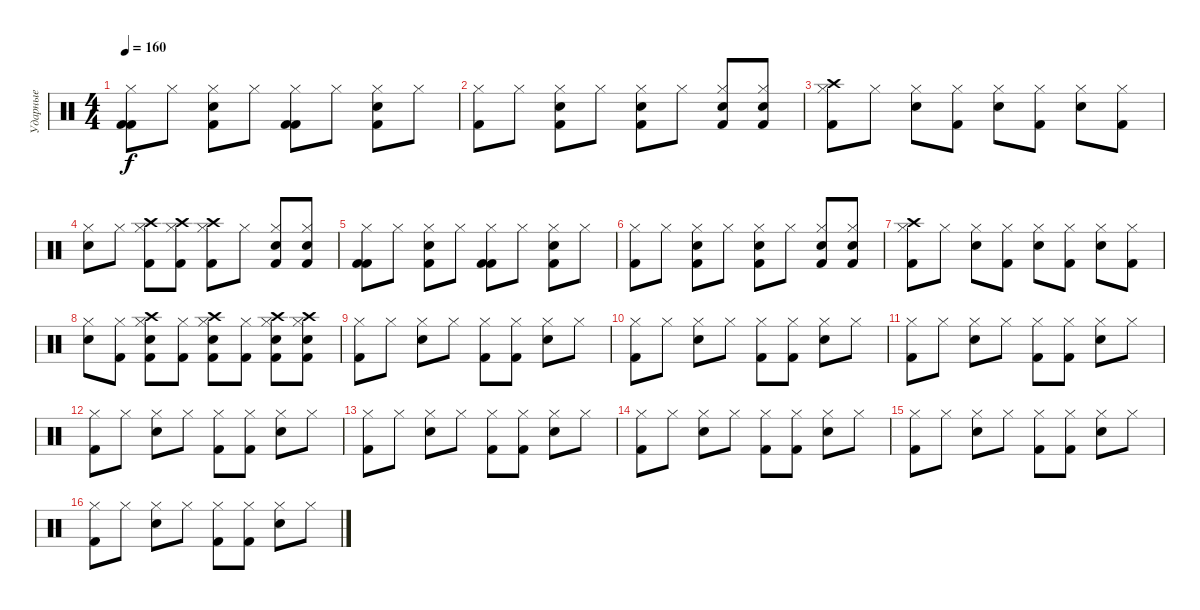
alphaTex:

\track ("Ударные" "Ударные") {instrument percussion}
\staff {score}
\articulation defaults
\ts (4 4)
\tempo 160
\clef neutral
\ks c
("Kick (hit) 2" "Kick (hit) 2" "Hi-Hat (closed)").8{dy f} "Hi-Hat (closed)".8 ("Kick (hit) 2" "Electric Snare (hit)" "Hi-Hat (closed)").8 "Hi-Hat (closed)".8 ("Kick (hit) 2" "Kick (hit) 2" "Hi-Hat (closed)").8 "Hi-Hat (closed)".8 ("Kick (hit) 2" "Electric Snare (hit)" "Hi-Hat (closed)").8 "Hi-Hat (closed)".8 |
("Kick (hit) 2" "Hi-Hat (closed)").8 "Hi-Hat (closed)".8 ("Kick (hit) 2" "Electric Snare (hit)" "Hi-Hat (closed)").8 "Hi-Hat (closed)".8 ("Kick (hit) 2" "Electric Snare (hit)" "Hi-Hat (closed)").8 "Hi-Hat (closed)".8 ("Kick (hit) 2" "Electric Snare (hit)" "Hi-Hat (closed)").8 ("Kick (hit) 2" "Electric Snare (hit)" "Hi-Hat (closed)").8 |
("Crash high (hit)" "Kick (hit) 2" "Hi-Hat (closed)").8 "Hi-Hat (closed)".8 ("Electric Snare (hit)" "Hi-Hat (closed)").8 ("Kick (hit) 2" "Hi-Hat (closed)").8 ("Electric Snare (hit)" "Hi-Hat (closed)").8 ("Kick (hit) 2" "Hi-Hat (closed)").8 ("Electric Snare (hit)" "Hi-Hat (closed)").8 ("Kick (hit) 2" "Hi-Hat (closed)").8 |
("Electric Snare (hit)" "Hi-Hat (closed)").8 "Hi-Hat (closed)".8 ("Crash high (hit)" "Kick (hit) 2" "Hi-Hat (closed)").8 ("Crash high (hit)" "Kick (hit) 2" "Hi-Hat (closed)").8 ("Crash high (hit)" "Kick (hit) 2" "Hi-Hat (closed)").8 "Hi-Hat (closed)".8 ("Kick (hit) 2" "Electric Snare (hit)" "Hi-Hat (closed)").8 ("Kick (hit) 2" "Electric Snare (hit)" "Hi-Hat (closed)").8 |
("Kick (hit) 2" "Kick (hit) 2" "Hi-Hat (closed)").8 "Hi-Hat (closed)".8 ("Kick (hit) 2" "Electric Snare (hit)" "Hi-Hat (closed)").8 "Hi-Hat (closed)".8 ("Kick (hit) 2" "Kick (hit) 2" "Hi-Hat (closed)").8 "Hi-Hat (closed)".8 ("Kick (hit) 2" "Electric Snare (hit)" "Hi-Hat (closed)").8 "Hi-Hat (closed)".8 |
("Kick (hit) 2" "Hi-Hat (closed)").8 "Hi-Hat (closed)".8 ("Kick (hit) 2" "Electric Snare (hit)" "Hi-Hat (closed)").8 "Hi-Hat (closed)".8 ("Kick (hit) 2" "Electric Snare (hit)" "Hi-Hat (closed)").8 "Hi-Hat (closed)".8 ("Kick (hit) 2" "Electric Snare (hit)" "Hi-Hat (closed)").8 ("Kick (hit) 2" "Electric Snare (hit)" "Hi-Hat (closed)").8 |
("Crash high (hit)" "Kick (hit) 2" "Hi-Hat (closed)").8 "Hi-Hat (closed)".8 ("Electric Snare (hit)" "Hi-Hat (closed)").8 ("Kick (hit) 2" "Hi-Hat (closed)").8 ("Electric Snare (hit)" "Hi-Hat (closed)").8 ("Kick (hit) 2" "Hi-Hat (closed)").8 ("Electric Snare (hit)" "Hi-Hat (closed)").8 ("Kick (hit) 2" "Hi-Hat (closed)").8 |
("Electric Snare (hit)" "Hi-Hat (closed)").8 ("Kick (hit) 2" "Hi-Hat (closed)").8 ("Electric Snare (hit)" "Crash high (hit)" "Kick (hit) 2" "Hi-Hat (closed)").8 ("Kick (hit) 2" "Hi-Hat (closed)").8 ("Electric Snare (hit)" "Crash high (hit)" "Kick (hit) 2" "Hi-Hat (closed)").8 ("Kick (hit) 2" "Hi-Hat (closed)").8 ("Electric Snare (hit)" "Crash high (hit)" "Kick (hit) 2" "Hi-Hat (closed)").8 ("Electric Snare (hit)" "Crash high (hit)" "Kick (hit) 2" "Hi-Hat (closed)").8 |
("Kick (hit) 2" "Hi-Hat (closed)").8 "Hi-Hat (closed)".8 ("Electric Snare (hit)" "Hi-Hat (closed)").8 "Hi-Hat (closed)".8 ("Kick (hit) 2" "Hi-Hat (closed)").8 ("Kick (hit) 2" "Hi-Hat (closed)").8 ("Electric Snare (hit)" "Hi-Hat (closed)").8 "Hi-Hat (closed)".8 |
("Kick (hit) 2" "Hi-Hat (closed)").8 "Hi-Hat (closed)".8 ("Electric Snare (hit)" "Hi-Hat (closed)").8 "Hi-Hat (closed)".8 ("Kick (hit) 2" "Hi-Hat (closed)").8 ("Kick (hit) 2" "Hi-Hat (closed)").8 ("Electric Snare (hit)" "Hi-Hat (closed)").8 "Hi-Hat (closed)".8 |
("Kick (hit) 2" "Hi-Hat (closed)").8 "Hi-Hat (closed)".8 ("Electric Snare (hit)" "Hi-Hat (closed)").8 "Hi-Hat (closed)".8 ("Kick (hit) 2" "Hi-Hat (closed)").8 ("Kick (hit) 2" "Hi-Hat (closed)").8 ("Electric Snare (hit)" "Hi-Hat (closed)").8 "Hi-Hat (closed)".8 |
("Kick (hit) 2" "Hi-Hat (closed)").8 "Hi-Hat (closed)".8 ("Electric Snare (hit)" "Hi-Hat (closed)").8 "Hi-Hat (closed)".8 ("Kick (hit) 2" "Hi-Hat (closed)").8 ("Kick (hit) 2" "Hi-Hat (closed)").8 ("Electric Snare (hit)" "Hi-Hat (closed)").8 "Hi-Hat (closed)".8 |
("Kick (hit) 2" "Hi-Hat (closed)").8 "Hi-Hat (closed)".8 ("Electric Snare (hit)" "Hi-Hat (closed)").8 "Hi-Hat (closed)".8 ("Kick (hit) 2" "Hi-Hat (closed)").8 ("Kick (hit) 2" "Hi-Hat (closed)").8 ("Electric Snare (hit)" "Hi-Hat (closed)").8 "Hi-Hat (closed)".8 |
("Kick (hit) 2" "Hi-Hat (closed)").8 "Hi-Hat (closed)".8 ("Electric Snare (hit)" "Hi-Hat (closed)").8 "Hi-Hat (closed)".8 ("Kick (hit) 2" "Hi-Hat (closed)").8 ("Kick (hit) 2" "Hi-Hat (closed)").8 ("Electric Snare (hit)" "Hi-Hat (closed)").8 "Hi-Hat (closed)".8 |
("Kick (hit) 2" "Hi-Hat (closed)").8 "Hi-Hat (closed)".8 ("Electric Snare (hit)" "Hi-Hat (closed)").8 "Hi-Hat (closed)".8 ("Kick (hit) 2" "Hi-Hat (closed)").8 ("Kick (hit) 2" "Hi-Hat (closed)").8 ("Electric Snare (hit)" "Hi-Hat (closed)").8 "Hi-Hat (closed)".8 |
("Kick (hit) 2" "Hi-Hat (closed)").8 "Hi-Hat (closed)".8 ("Electric Snare (hit)" "Hi-Hat (closed)").8 "Hi-Hat (closed)".8 ("Kick (hit) 2" "Hi-Hat (closed)").8 ("Kick (hit) 2" "Hi-Hat (closed)").8 ("Electric Snare (hit)" "Hi-Hat (closed)").8 "Hi-Hat (closed)".8
